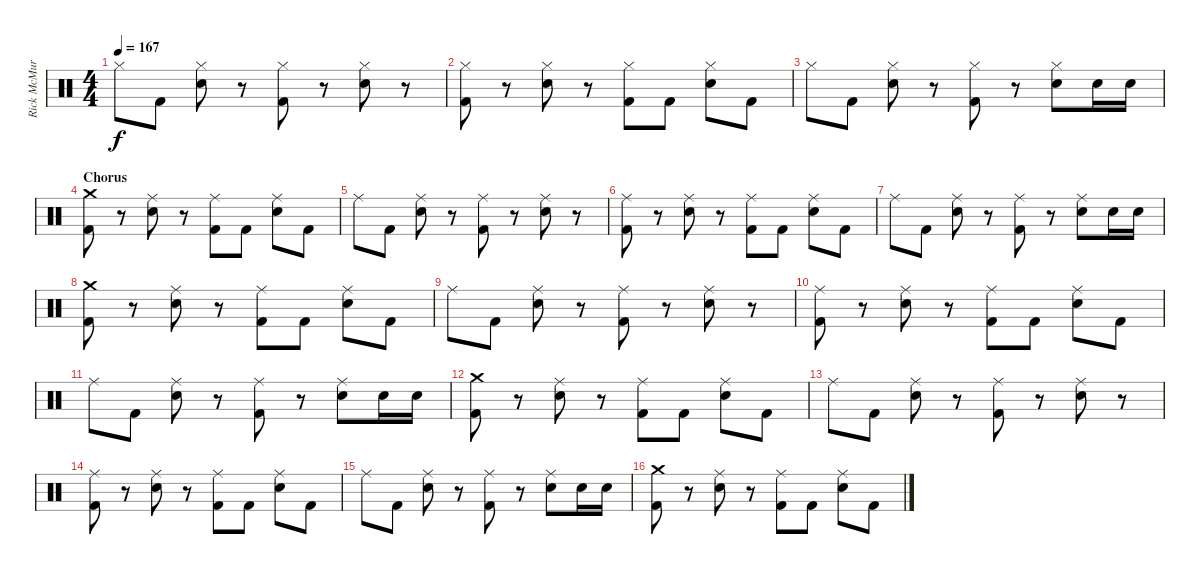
\track ("Rick McMurray" "Rick McMur") {instrument percussion}
\staff {score}
\articulation defaults
\ts (4 4)
\tempo 167
\clef neutral
\ks c "Hi-Hat (closed)".8{dy f} "Kick (hit) 2".8
("Hi-Hat (closed)" "Electric Snare (hit)").8 r.8 ("Hi-Hat (closed)" "Kick (hit) 2").8 r.8 ("Hi-Hat (closed)" "Electric Snare (hit)").8 r.8 |
("Hi-Hat (closed)" "Kick (hit) 2").8 r.8 ("Hi-Hat (closed)" "Electric Snare (hit)").8 r.8 ("Hi-Hat (closed)" "Kick (hit) 2").8 "Kick (hit) 2".8 ("Hi-Hat (closed)" "Electric Snare (hit)").8 "Kick (hit) 2".8 |
"Hi-Hat (closed)".8 "Kick (hit) 2".8 ("Hi-Hat (closed)" "Electric Snare (hit)").8 r.8 ("Hi-Hat (closed)" "Kick (hit) 2").8 r.8 ("Hi-Hat (closed)" "Electric Snare (hit)").8 "Electric Snare (hit)".16 "Electric Snare (hit)".16 |
\section ("" "Chorus")
("Crash medium (hit)" "Kick (hit) 2").8 r.8 ("Ride (middle)" "Electric Snare (hit)").8 r.8 ("Ride (middle)" "Kick (hit) 2").8 "Kick (hit) 2".8 ("Ride (middle)" "Electric Snare (hit)").8 "Kick (hit) 2".8 |
"Ride (middle)".8 "Kick (hit) 2".8 ("Ride (middle)" "Electric Snare (hit)").8 r.8 ("Ride (middle)" "Kick (hit) 2").8 r.8 ("Ride (middle)" "Electric Snare (hit)").8 r.8 |
("Ride (middle)" "Kick (hit) 2").8 r.8 ("Ride (middle)" "Electric Snare (hit)").8 r.8 ("Ride (middle)" "Kick (hit) 2").8 "Kick (hit) 2".8 ("Ride (middle)" "Electric Snare (hit)").8 "Kick (hit) 2".8 |
"Ride (middle)".8 "Kick (hit) 2".8 ("Ride (middle)" "Electric Snare (hit)").8 r.8 ("Ride (middle)" "Kick (hit) 2").8 r.8 ("Ride (middle)" "Electric Snare (hit)").8 "Electric Snare (hit)".16 "Electric Snare (hit)".16 |
("Crash medium (hit)" "Kick (hit) 2").8 r.8 ("Ride (middle)" "Electric Snare (hit)").8 r.8 ("Ride (middle)" "Kick (hit) 2").8 "Kick (hit) 2".8 ("Ride (middle)" "Electric Snare (hit)").8 "Kick (hit) 2".8 |
"Ride (middle)".8 "Kick (hit) 2".8 ("Ride (middle)" "Electric Snare (hit)").8 r.8 ("Ride (middle)" "Kick (hit) 2").8 r.8 ("Ride (middle)" "Electric Snare (hit)").8 r.8 |
("Ride (middle)" "Kick (hit) 2").8 r.8 ("Ride (middle)" "Electric Snare (hit)").8 r.8 ("Ride (middle)" "Kick (hit) 2").8 "Kick (hit) 2".8 ("Ride (middle)" "Electric Snare (hit)").8 "Kick (hit) 2".8 |
"Ride (middle)".8 "Kick (hit) 2".8 ("Ride (middle)" "Electric Snare (hit)").8 r.8 ("Ride (middle)" "Kick (hit) 2").8 r.8 ("Ride (middle)" "Electric Snare (hit)").8 "Electric Snare (hit)".16 "Electric Snare (hit)".16 |
("Crash medium (hit)" "Kick (hit) 2").8 r.8 ("Ride (middle)" "Electric Snare (hit)").8 r.8 ("Ride (middle)" "Kick (hit) 2").8 "Kick (hit) 2".8 ("Ride (middle)" "Electric Snare (hit)").8 "Kick (hit) 2".8 |
"Ride (middle)".8 "Kick (hit) 2".8 ("Ride (middle)" "Electric Snare (hit)").8 r.8 ("Ride (middle)" "Kick (hit) 2").8 r.8 ("Ride (middle)" "Electric Snare (hit)").8 r.8 |
("Ride (middle)" "Kick (hit) 2").8 r.8 ("Ride (middle)" "Electric Snare (hit)").8 r.8 ("Ride (middle)" "Kick (hit) 2").8 "Kick (hit) 2".8 ("Ride (middle)" "Electric Snare (hit)").8 "Kick (hit) 2".8 |
"Ride (middle)".8 "Kick (hit) 2".8 ("Ride (middle)" "Electric Snare (hit)").8 r.8 ("Ride (middle)" "Kick (hit) 2").8 r.8 ("Ride (middle)" "Electric Snare (hit)").8 "Electric Snare (hit)".16 "Electric Snare (hit)".16 |
("Crash medium (hit)" "Kick (hit) 2").8 r.8 ("Ride (middle)" "Electric Snare (hit)").8 r.8 ("Ride (middle)" "Kick (hit) 2").8 "Kick (hit) 2".8 ("Ride (middle)" "Electric Snare (hit)").8 "Kick (hit) 2".8
